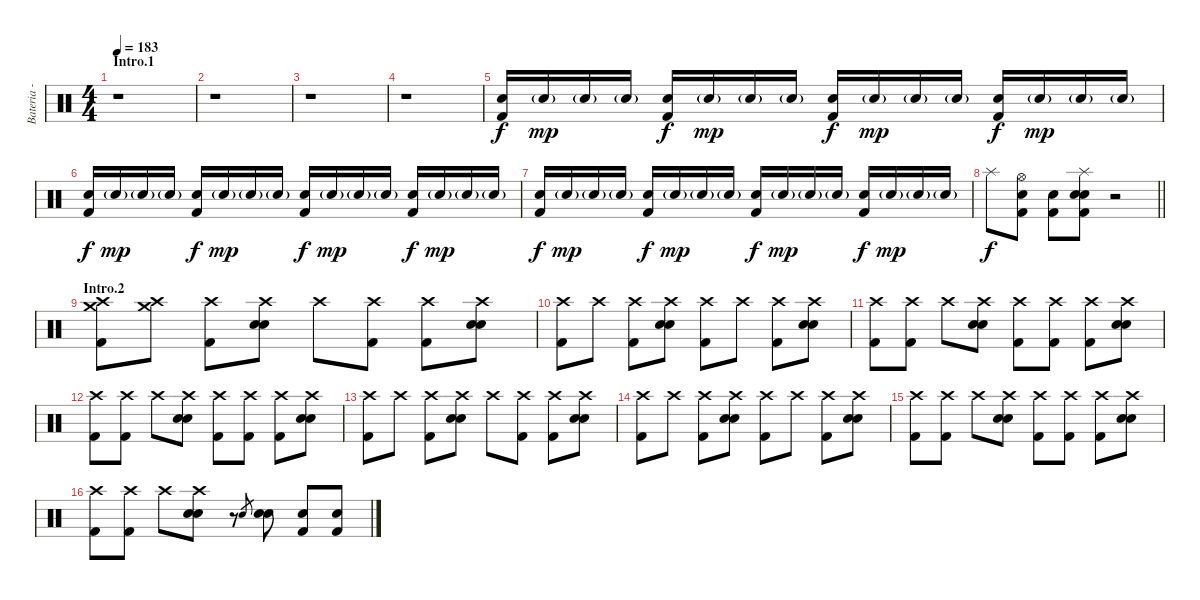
\track ("Bateria - Larzon " "Bateria - ") {instrument percussion}
\staff {score}
\articulation defaults
\ts (4 4)
\section ("" "Intro.1")
\tempo 183
\clef neutral
\ks c
r.1{dy f} |
r.1 |
r.1 |
r.1 |
("Snare (hit) 2" "Kick (hit) 2").16 "Snare (hit) 2"{g}.16{dy mp} "Snare (hit) 2"{g}.16 "Snare (hit) 2"{g}.16 ("Snare (hit) 2" "Kick (hit) 2").16{dy f} "Snare (hit) 2"{g}.16{dy mp} "Snare (hit) 2"{g}.16 "Snare (hit) 2"{g}.16 ("Snare (hit) 2" "Kick (hit) 2").16{dy f} "Snare (hit) 2"{g}.16{dy mp} "Snare (hit) 2"{g}.16 "Snare (hit) 2"{g}.16 ("Snare (hit) 2" "Kick (hit) 2").16{dy f} "Snare (hit) 2"{g}.16{dy mp} "Snare (hit) 2"{g}.16 "Snare (hit) 2"{g}.16 |
("Snare (hit) 2" "Kick (hit) 2").16{dy f} "Snare (hit) 2"{g}.16{dy mp} "Snare (hit) 2"{g}.16 "Snare (hit) 2"{g}.16 ("Snare (hit) 2" "Kick (hit) 2").16{dy f} "Snare (hit) 2"{g}.16{dy mp} "Snare (hit) 2"{g}.16 "Snare (hit) 2"{g}.16 ("Snare (hit) 2" "Kick (hit) 2").16{dy f} "Snare (hit) 2"{g}.16{dy mp} "Snare (hit) 2"{g}.16 "Snare (hit) 2"{g}.16 ("Snare (hit) 2" "Kick (hit) 2").16{dy f} "Snare (hit) 2"{g}.16{dy mp} "Snare (hit) 2"{g}.16 "Snare (hit) 2"{g}.16 |
("Snare (hit) 2" "Kick (hit) 2").16{dy f} "Snare (hit) 2"{g}.16{dy mp} "Snare (hit) 2"{g}.16 "Snare (hit) 2"{g}.16 ("Snare (hit) 2" "Kick (hit) 2").16{dy f} "Snare (hit) 2"{g}.16{dy mp} "Snare (hit) 2"{g}.16 "Snare (hit) 2"{g}.16 ("Snare (hit) 2" "Kick (hit) 2").16{dy f} "Snare (hit) 2"{g}.16{dy mp} "Snare (hit) 2"{g}.16 "Snare (hit) 2"{g}.16 ("Snare (hit) 2" "Kick (hit) 2").16{dy f} "Snare (hit) 2"{g}.16{dy mp} "Snare (hit) 2"{g}.16 "Snare (hit) 2"{g}.16 |
\barLineRight lightlight "Splash (hit)".8{dy f}
("Snare (hit) 2" "Hi-Hat (open)" "Kick (hit) 2").8 ("Snare (hit) 2" "Kick (hit) 2").8 ("Snare (hit) 2" "Snare (hit) 2" "Kick (hit) 2" "Splash (hit)").8 r.2 |
\section ("" "Intro.2")
("Kick (hit) 2" "Crash medium (hit)" "Crash high (hit)").8 ("Crash medium (hit)" "Crash high (hit)").8 ("Kick (hit) 2" "Crash high (hit)").8 ("Snare (hit) 2" "Snare (hit) 2" "Crash high (hit)").8 "Crash high (hit)".8 ("Kick (hit) 2" "Crash high (hit)").8 ("Kick (hit) 2" "Crash high (hit)").8 ("Snare (hit) 2" "Snare (hit) 2" "Crash high (hit)").8 |
("Kick (hit) 2" "Crash high (hit)").8 "Crash high (hit)".8 ("Kick (hit) 2" "Crash high (hit)").8 ("Snare (hit) 2" "Snare (hit) 2" "Crash high (hit)").8 ("Kick (hit) 2" "Crash high (hit)").8 "Crash high (hit)".8 ("Kick (hit) 2" "Crash high (hit)").8 ("Snare (hit) 2" "Snare (hit) 2" "Crash high (hit)").8 |
("Kick (hit) 2" "Crash high (hit)").8 ("Kick (hit) 2" "Crash high (hit)").8 "Crash high (hit)".8 ("Snare (hit) 2" "Snare (hit) 2" "Crash high (hit)").8 ("Kick (hit) 2" "Crash high (hit)").8 ("Kick (hit) 2" "Crash high (hit)").8 ("Kick (hit) 2" "Crash high (hit)").8 ("Snare (hit) 2" "Snare (hit) 2" "Crash high (hit)").8 |
("Kick (hit) 2" "Crash high (hit)").8 ("Kick (hit) 2" "Crash high (hit)").8 "Crash high (hit)".8 ("Snare (hit) 2" "Snare (hit) 2" "Crash high (hit)").8 ("Kick (hit) 2" "Crash high (hit)").8 ("Kick (hit) 2" "Crash high (hit)").8 ("Kick (hit) 2" "Crash high (hit)").8 ("Snare (hit) 2" "Snare (hit) 2" "Crash high (hit)").8 |
("Kick (hit) 2" "Crash high (hit)").8 "Crash high (hit)".8 ("Kick (hit) 2" "Crash high (hit)").8 ("Snare (hit) 2" "Snare (hit) 2" "Crash high (hit)").8 "Crash high (hit)".8 ("Kick (hit) 2" "Crash high (hit)").8 ("Kick (hit) 2" "Crash high (hit)").8 ("Snare (hit) 2" "Snare (hit) 2" "Crash high (hit)").8 |
("Kick (hit) 2" "Crash high (hit)").8 "Crash high (hit)".8 ("Kick (hit) 2" "Crash high (hit)").8 ("Snare (hit) 2" "Snare (hit) 2" "Crash high (hit)").8 ("Kick (hit) 2" "Crash high (hit)").8 "Crash high (hit)".8 ("Kick (hit) 2" "Crash high (hit)").8 ("Snare (hit) 2" "Snare (hit) 2" "Crash high (hit)").8 |
("Kick (hit) 2" "Crash high (hit)").8 ("Kick (hit) 2" "Crash high (hit)").8 "Crash high (hit)".8 ("Snare (hit) 2" "Snare (hit) 2" "Crash high (hit)").8 ("Kick (hit) 2" "Crash high (hit)").8 ("Kick (hit) 2" "Crash high (hit)").8 ("Kick (hit) 2" "Crash high (hit)").8 ("Snare (hit) 2" "Snare (hit) 2" "Crash high (hit)").8 |
("Kick (hit) 2" "Crash high (hit)").8 ("Kick (hit) 2" "Crash high (hit)").8 "Crash high (hit)".8 ("Snare (hit) 2" "Snare (hit) 2" "Crash high (hit)").8 r.8 "Snare (hit) 2".8{gr} ("Snare (hit) 2" "Snare (hit) 2").8 ("Snare (hit) 2" "Kick (hit) 2").8 ("Snare (hit) 2" "Kick (hit) 2").8
